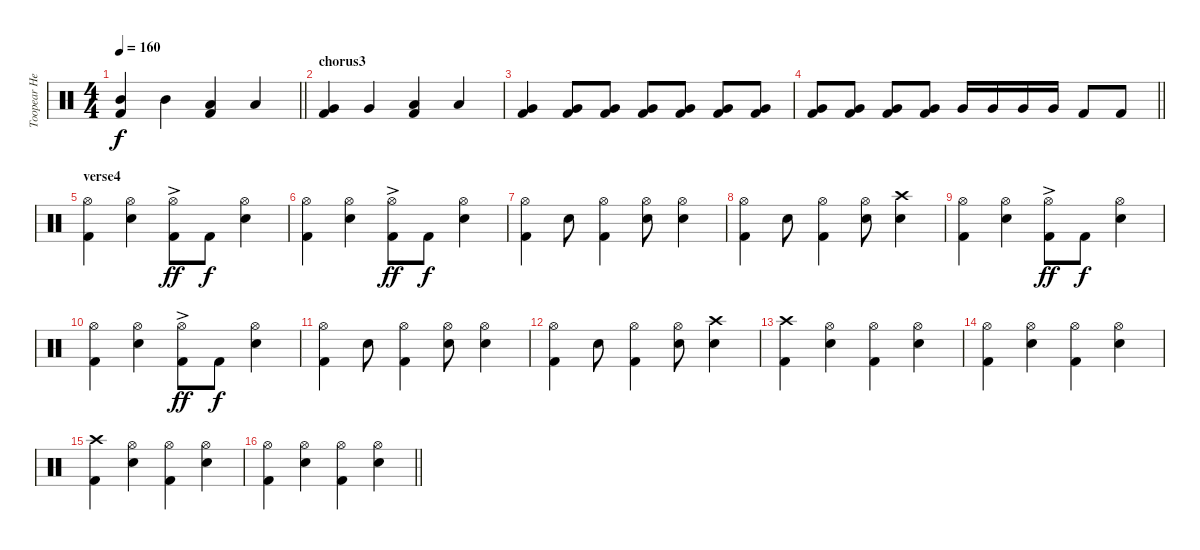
\track ("Toopear Headon" "Toopear He") {instrument percussion}
\staff {score}
\articulation defaults
\ts (4 4)
\tempo 160
\clef neutral
\barLineRight lightlight
\ks c
("Mid Tom (hit)" "Kick (hit) 2").4{dy f} "Mid Tom (hit)".4 ("Low Tom (hit)" "Kick (hit) 2").4 "Low Tom (hit)".4 |
\section ("" "chorus3")
("Very Low Tom (hit)" "Kick (hit) 2").4 "Very Low Tom (hit)".4 ("Low Floor Tom (hit)" "Kick (hit) 2").4 "Low Floor Tom (hit)".4 |
("Very Low Tom (hit)" "Kick (hit) 2").4 ("Very Low Tom (hit)" "Kick (hit) 2").8 ("Very Low Tom (hit)" "Kick (hit) 2").8 ("Very Low Tom (hit)" "Kick (hit) 2").8 ("Very Low Tom (hit)" "Kick (hit) 2").8 ("Very Low Tom (hit)" "Kick (hit) 2").8 ("Very Low Tom (hit)" "Kick (hit) 2").8 |
\barLineRight lightlight
("Very Low Tom (hit)" "Kick (hit) 2").8 ("Very Low Tom (hit)" "Kick (hit) 2").8 ("Very Low Tom (hit)" "Kick (hit) 2").8 ("Very Low Tom (hit)" "Kick (hit) 2").8 "Very Low Tom (hit)".16 "Very Low Tom (hit)".16 "Very Low Tom (hit)".16 "Very Low Tom (hit)".16 "Kick (hit) 2".8 "Kick (hit) 2".8 |
\section ("" "verse4")
("Hi-Hat (open)" "Kick (hit) 2").4 ("Hi-Hat (open)" "Electric Snare (hit)").4 ("Hi-Hat (open)" "Kick (hit) 2"{ac}).8{dy ff} "Kick (hit) 2".8{dy f} ("Hi-Hat (open)" "Electric Snare (hit)").4 |
("Hi-Hat (open)" "Kick (hit) 2").4 ("Hi-Hat (open)" "Electric Snare (hit)").4 ("Hi-Hat (open)" "Kick (hit) 2"{ac}).8{dy ff} "Kick (hit) 2".8{dy f} ("Hi-Hat (open)" "Electric Snare (hit)").4 |
("Hi-Hat (open)" "Kick (hit) 2").4 "Electric Snare (hit)".8 ("Hi-Hat (open)" "Kick (hit) 2").4 ("Hi-Hat (open)" "Electric Snare (hit)").8 ("Hi-Hat (open)" "Electric Snare (hit)").4 |
("Hi-Hat (open)" "Kick (hit) 2").4 "Electric Snare (hit)".8 ("Hi-Hat (open)" "Kick (hit) 2").4 ("Hi-Hat (open)" "Electric Snare (hit)").8 ("Crash high (hit)" "Electric Snare (hit)").4 |
("Hi-Hat (open)" "Kick (hit) 2").4 ("Hi-Hat (open)" "Electric Snare (hit)").4 ("Hi-Hat (open)" "Kick (hit) 2"{ac}).8{dy ff} "Kick (hit) 2".8{dy f} ("Hi-Hat (open)" "Electric Snare (hit)").4 |
("Hi-Hat (open)" "Kick (hit) 2").4 ("Hi-Hat (open)" "Electric Snare (hit)").4 ("Hi-Hat (open)" "Kick (hit) 2"{ac}).8{dy ff} "Kick (hit) 2".8{dy f} ("Hi-Hat (open)" "Electric Snare (hit)").4 |
("Hi-Hat (open)" "Kick (hit) 2").4 "Electric Snare (hit)".8 ("Hi-Hat (open)" "Kick (hit) 2").4 ("Hi-Hat (open)" "Electric Snare (hit)").8 ("Hi-Hat (open)" "Electric Snare (hit)").4 |
("Hi-Hat (open)" "Kick (hit) 2").4 "Electric Snare (hit)".8 ("Hi-Hat (open)" "Kick (hit) 2").4 ("Hi-Hat (open)" "Electric Snare (hit)").8 ("Crash high (hit)" "Electric Snare (hit)").4 |
("Crash high (hit)" "Kick (hit) 2").4 ("Hi-Hat (open)" "Electric Snare (hit)").4 ("Hi-Hat (open)" "Kick (hit) 2").4 ("Hi-Hat (open)" "Electric Snare (hit)").4 |
("Hi-Hat (open)" "Kick (hit) 2").4 ("Hi-Hat (open)" "Electric Snare (hit)").4 ("Hi-Hat (open)" "Kick (hit) 2").4 ("Hi-Hat (open)" "Electric Snare (hit)").4 |
("Crash high (hit)" "Kick (hit) 2").4 ("Hi-Hat (open)" "Electric Snare (hit)").4 ("Hi-Hat (open)" "Kick (hit) 2").4 ("Hi-Hat (open)" "Electric Snare (hit)").4 |
\barLineRight lightlight
("Hi-Hat (open)" "Kick (hit) 2").4 ("Hi-Hat (open)" "Electric Snare (hit)").4 ("Hi-Hat (open)" "Kick (hit) 2").4 ("Hi-Hat (open)" "Electric Snare (hit)").4
